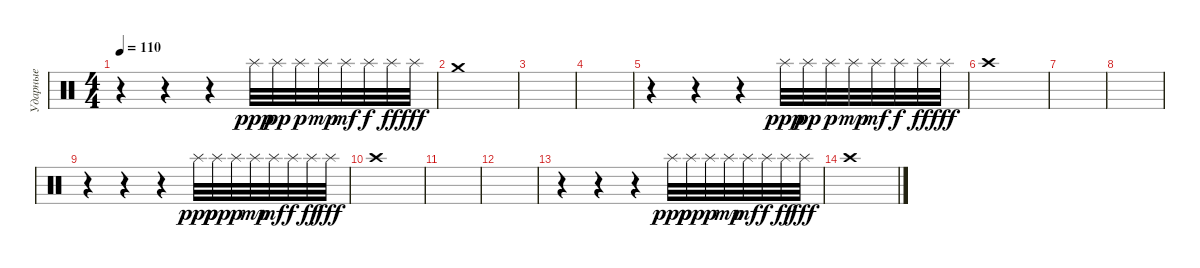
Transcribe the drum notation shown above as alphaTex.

\track ("Ударные" "Ударные") {instrument percussion}
\staff {score}
\articulation defaults
\ts (4 4)
\tempo 110
\clef neutral
\ks c
r.4{dy fff} r.4 r.4 "Splash (hit)".32{dy ppp} "Splash (hit)".32{dy pp} "Splash (hit)".32{dy p} "Splash (hit)".32{dy mp} "Splash (hit)".32{dy mf} "Splash (hit)".32{dy f} "Splash (hit)".32{dy ff} "Splash (hit)".32{dy fff} |
"Crash medium (hit)".1 |
|
|
r.4 r.4 r.4 "Splash (hit)".32{dy ppp} "Splash (hit)".32{dy pp} "Splash (hit)".32{dy p} "Splash (hit)".32{dy mp} "Splash (hit)".32{dy mf} "Splash (hit)".32{dy f} "Splash (hit)".32{dy ff} "Splash (hit)".32{dy fff} |
"Crash high (hit)".1 |
|
|
r.4 r.4 r.4 "Splash (hit)".32{dy ppp} "Splash (hit)".32{dy pp} "Splash (hit)".32{dy p} "Splash (hit)".32{dy mp} "Splash (hit)".32{dy mf} "Splash (hit)".32{dy f} "Splash (hit)".32{dy ff} "Splash (hit)".32{dy fff} |
"Crash high (hit)".1 |
|
|
r.4 r.4 r.4 "Splash (hit)".32{dy ppp} "Splash (hit)".32{dy pp} "Splash (hit)".32{dy p} "Splash (hit)".32{dy mp} "Splash (hit)".32{dy mf} "Splash (hit)".32{dy f} "Splash (hit)".32{dy ff} "Splash (hit)".32{dy fff} |
"Crash high (hit)".1
